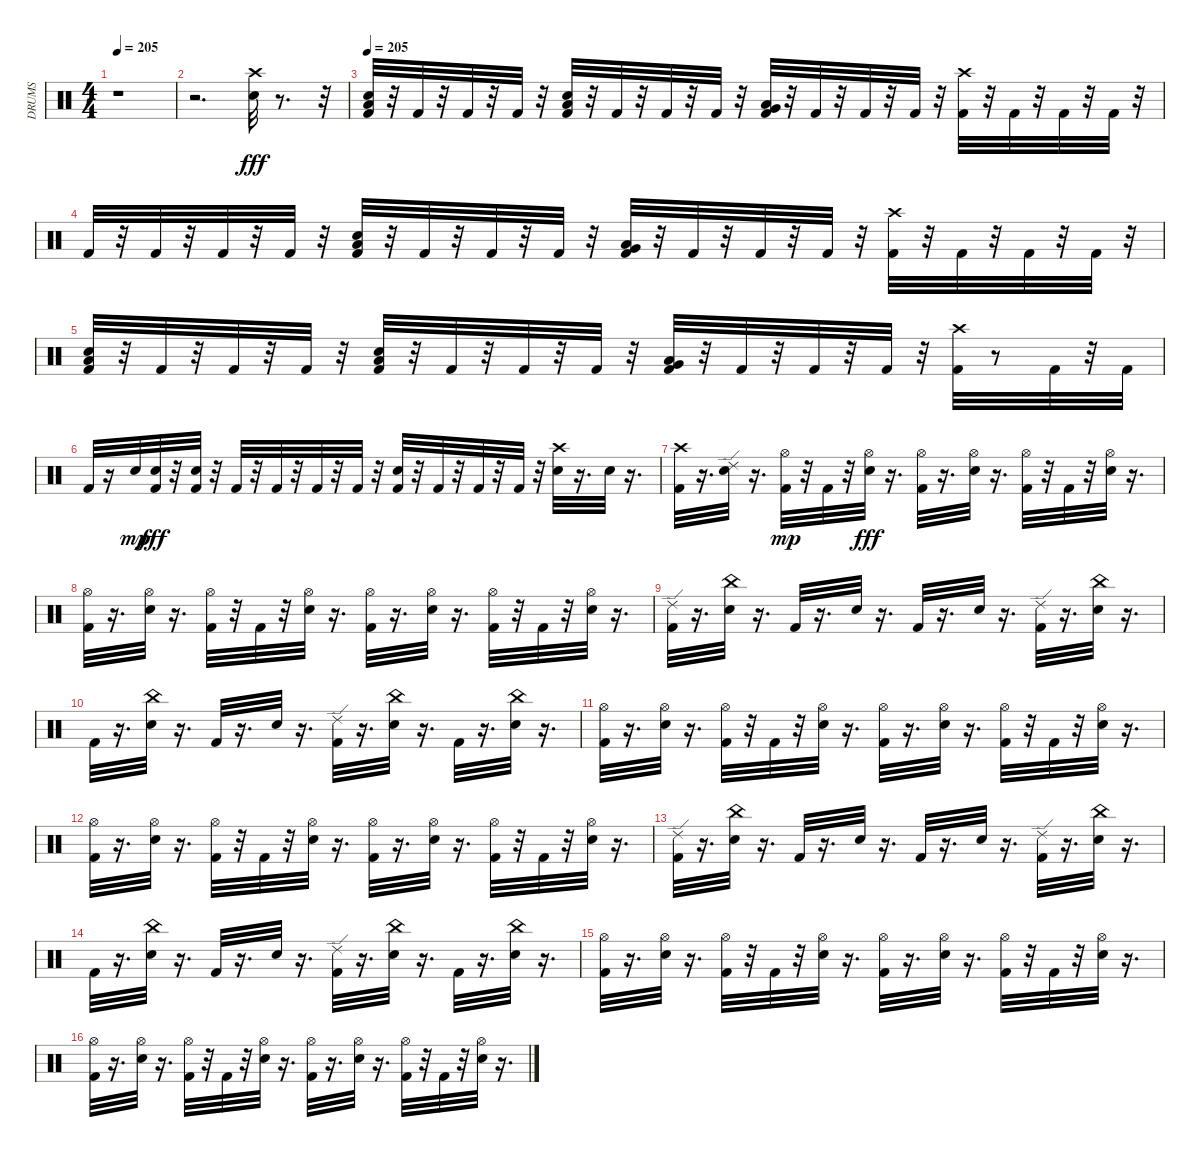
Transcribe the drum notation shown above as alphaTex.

\track ("DRUMS" "DRUMS") {instrument percussion}
\staff {score}
\articulation defaults
\ts (4 4)
\tempo 205
\clef neutral
\ks c
r.1{dy fff} |
r.2{d} ("Crash high (hit)" "Electric Snare (hit)").32 r.8{d} r.32 |
\tempo 205
("Electric Snare (hit)" "Low Floor Tom (hit)" "Kick (hit) 2").32 r.32 "Kick (hit) 2".32 r.32 "Kick (hit) 2".32 r.32 "Kick (hit) 2".32 r.32 ("Electric Snare (hit)" "Low Floor Tom (hit)" "Kick (hit) 2").32 r.32 "Kick (hit) 2".32 r.32 "Kick (hit) 2".32 r.32 "Kick (hit) 2".32 r.32 ("Very Low Tom (hit)" "Low Floor Tom (hit)" "Kick (hit) 2").32 r.32 "Kick (hit) 2".32 r.32 "Kick (hit) 2".32 r.32 "Kick (hit) 2".32 r.32 ("Crash high (hit)" "Kick (hit) 2").32 r.32 "Kick (hit) 2".32 r.32 "Kick (hit) 2".32 r.32 "Kick (hit) 2".32 r.32 |
"Kick (hit) 2".32 r.32 "Kick (hit) 2".32 r.32 "Kick (hit) 2".32 r.32 "Kick (hit) 2".32 r.32 ("Electric Snare (hit)" "Low Floor Tom (hit)" "Kick (hit) 2").32 r.32 "Kick (hit) 2".32 r.32 "Kick (hit) 2".32 r.32 "Kick (hit) 2".32 r.32 ("Very Low Tom (hit)" "Low Floor Tom (hit)" "Kick (hit) 2").32 r.32 "Kick (hit) 2".32 r.32 "Kick (hit) 2".32 r.32 "Kick (hit) 2".32 r.32 ("Crash high (hit)" "Kick (hit) 2").32 r.32 "Kick (hit) 2".32 r.32 "Kick (hit) 2".32 r.32 "Kick (hit) 2".32 r.32 |
("Electric Snare (hit)" "Low Floor Tom (hit)" "Kick (hit) 2").32 r.32 "Kick (hit) 2".32 r.32 "Kick (hit) 2".32 r.32 "Kick (hit) 2".32 r.32 ("Electric Snare (hit)" "Low Floor Tom (hit)" "Kick (hit) 2").32 r.32 "Kick (hit) 2".32 r.32 "Kick (hit) 2".32 r.32 "Kick (hit) 2".32 r.32 ("Very Low Tom (hit)" "Low Floor Tom (hit)" "Kick (hit) 2").32 r.32 "Kick (hit) 2".32 r.32 "Kick (hit) 2".32 r.32 "Kick (hit) 2".32 r.32 ("Crash high (hit)" "Kick (hit) 2").32 r.8 "Kick (hit) 2".32 r.32 "Kick (hit) 2".32 |
"Kick (hit) 2".32 r.16 "Electric Snare (hit)".32{dy mp} ("Electric Snare (hit)" "Kick (hit) 2").32{dy fff} r.32 ("Electric Snare (hit)" "Kick (hit) 2").32 r.32 "Kick (hit) 2".32 r.32 "Kick (hit) 2".32 r.32 "Kick (hit) 2".32 r.32 "Kick (hit) 2".32 r.32 ("Electric Snare (hit)" "Kick (hit) 2").32 r.32 "Kick (hit) 2".32 r.32 "Kick (hit) 2".32 r.32 "Kick (hit) 2".32 r.32 ("Crash high (hit)" "Electric Snare (hit)").32 r.16{d} "Electric Snare (hit)".32 r.16{d} |
("Crash high (hit)" "Kick (hit) 2").32 r.16{d} ("Ride (edge) 2" "Electric Snare (hit)").32 r.16{d} ("Hi-Hat (open)" "Kick (hit) 2").32{dy mp} r.32 "Kick (hit) 2".32 r.32 ("Hi-Hat (open)" "Electric Snare (hit)").32{dy fff} r.16{d} ("Hi-Hat (open)" "Kick (hit) 2").32 r.16{d} ("Hi-Hat (open)" "Electric Snare (hit)").32 r.16{d} ("Hi-Hat (open)" "Kick (hit) 2").32 r.32 "Kick (hit) 2".32 r.32 ("Hi-Hat (open)" "Electric Snare (hit)").32 r.16{d} |
("Hi-Hat (open)" "Kick (hit) 2").32 r.16{d} ("Hi-Hat (open)" "Electric Snare (hit)").32 r.16{d} ("Hi-Hat (open)" "Kick (hit) 2").32 r.32 "Kick (hit) 2".32 r.32 ("Hi-Hat (open)" "Electric Snare (hit)").32 r.16{d} ("Hi-Hat (open)" "Kick (hit) 2").32 r.16{d} ("Hi-Hat (open)" "Electric Snare (hit)").32 r.16{d} ("Hi-Hat (open)" "Kick (hit) 2").32 r.32 "Kick (hit) 2".32 r.32 ("Hi-Hat (open)" "Electric Snare (hit)").32 r.16{d} |
("Ride (edge) 2" "Kick (hit) 2").32 r.16{d} ("China (hit)" "Electric Snare (hit)").32 r.16{d} "Kick (hit) 2".32 r.16{d} "Electric Snare (hit)".32 r.16{d} "Kick (hit) 2".32 r.16{d} "Electric Snare (hit)".32 r.16{d} ("Ride (edge) 2" "Kick (hit) 2").32 r.16{d} ("China (hit)" "Electric Snare (hit)").32 r.16{d} |
"Kick (hit) 2".32 r.16{d} ("China (hit)" "Electric Snare (hit)").32 r.16{d} "Kick (hit) 2".32 r.16{d} "Electric Snare (hit)".32 r.16{d} ("Ride (edge) 2" "Kick (hit) 2").32 r.16{d} ("China (hit)" "Electric Snare (hit)").32 r.16{d} "Kick (hit) 2".32 r.16{d} ("China (hit)" "Electric Snare (hit)").32 r.16{d} |
("Hi-Hat (open)" "Kick (hit) 2").32 r.16{d} ("Hi-Hat (open)" "Electric Snare (hit)").32 r.16{d} ("Hi-Hat (open)" "Kick (hit) 2").32 r.32 "Kick (hit) 2".32 r.32 ("Hi-Hat (open)" "Electric Snare (hit)").32 r.16{d} ("Hi-Hat (open)" "Kick (hit) 2").32 r.16{d} ("Hi-Hat (open)" "Electric Snare (hit)").32 r.16{d} ("Hi-Hat (open)" "Kick (hit) 2").32 r.32 "Kick (hit) 2".32 r.32 ("Hi-Hat (open)" "Electric Snare (hit)").32 r.16{d} |
("Hi-Hat (open)" "Kick (hit) 2").32 r.16{d} ("Hi-Hat (open)" "Electric Snare (hit)").32 r.16{d} ("Hi-Hat (open)" "Kick (hit) 2").32 r.32 "Kick (hit) 2".32 r.32 ("Hi-Hat (open)" "Electric Snare (hit)").32 r.16{d} ("Hi-Hat (open)" "Kick (hit) 2").32 r.16{d} ("Hi-Hat (open)" "Electric Snare (hit)").32 r.16{d} ("Hi-Hat (open)" "Kick (hit) 2").32 r.32 "Kick (hit) 2".32 r.32 ("Hi-Hat (open)" "Electric Snare (hit)").32 r.16{d} |
("Ride (edge) 2" "Kick (hit) 2").32 r.16{d} ("China (hit)" "Electric Snare (hit)").32 r.16{d} "Kick (hit) 2".32 r.16{d} "Electric Snare (hit)".32 r.16{d} "Kick (hit) 2".32 r.16{d} "Electric Snare (hit)".32 r.16{d} ("Ride (edge) 2" "Kick (hit) 2").32 r.16{d} ("China (hit)" "Electric Snare (hit)").32 r.16{d} |
"Kick (hit) 2".32 r.16{d} ("China (hit)" "Electric Snare (hit)").32 r.16{d} "Kick (hit) 2".32 r.16{d} "Electric Snare (hit)".32 r.16{d} ("Ride (edge) 2" "Kick (hit) 2").32 r.16{d} ("China (hit)" "Electric Snare (hit)").32 r.16{d} "Kick (hit) 2".32 r.16{d} ("China (hit)" "Electric Snare (hit)").32 r.16{d} |
("Hi-Hat (open)" "Kick (hit) 2").32 r.16{d} ("Hi-Hat (open)" "Electric Snare (hit)").32 r.16{d} ("Hi-Hat (open)" "Kick (hit) 2").32 r.32 "Kick (hit) 2".32 r.32 ("Hi-Hat (open)" "Electric Snare (hit)").32 r.16{d} ("Hi-Hat (open)" "Kick (hit) 2").32 r.16{d} ("Hi-Hat (open)" "Electric Snare (hit)").32 r.16{d} ("Hi-Hat (open)" "Kick (hit) 2").32 r.32 "Kick (hit) 2".32 r.32 ("Hi-Hat (open)" "Electric Snare (hit)").32 r.16{d} |
("Hi-Hat (open)" "Kick (hit) 2").32 r.16{d} ("Hi-Hat (open)" "Electric Snare (hit)").32 r.16{d} ("Hi-Hat (open)" "Kick (hit) 2").32 r.32 "Kick (hit) 2".32 r.32 ("Hi-Hat (open)" "Electric Snare (hit)").32 r.16{d} ("Hi-Hat (open)" "Kick (hit) 2").32 r.16{d} ("Hi-Hat (open)" "Electric Snare (hit)").32 r.16{d} ("Hi-Hat (open)" "Kick (hit) 2").32 r.32 "Kick (hit) 2".32 r.32 ("Hi-Hat (open)" "Electric Snare (hit)").32 r.16{d}
